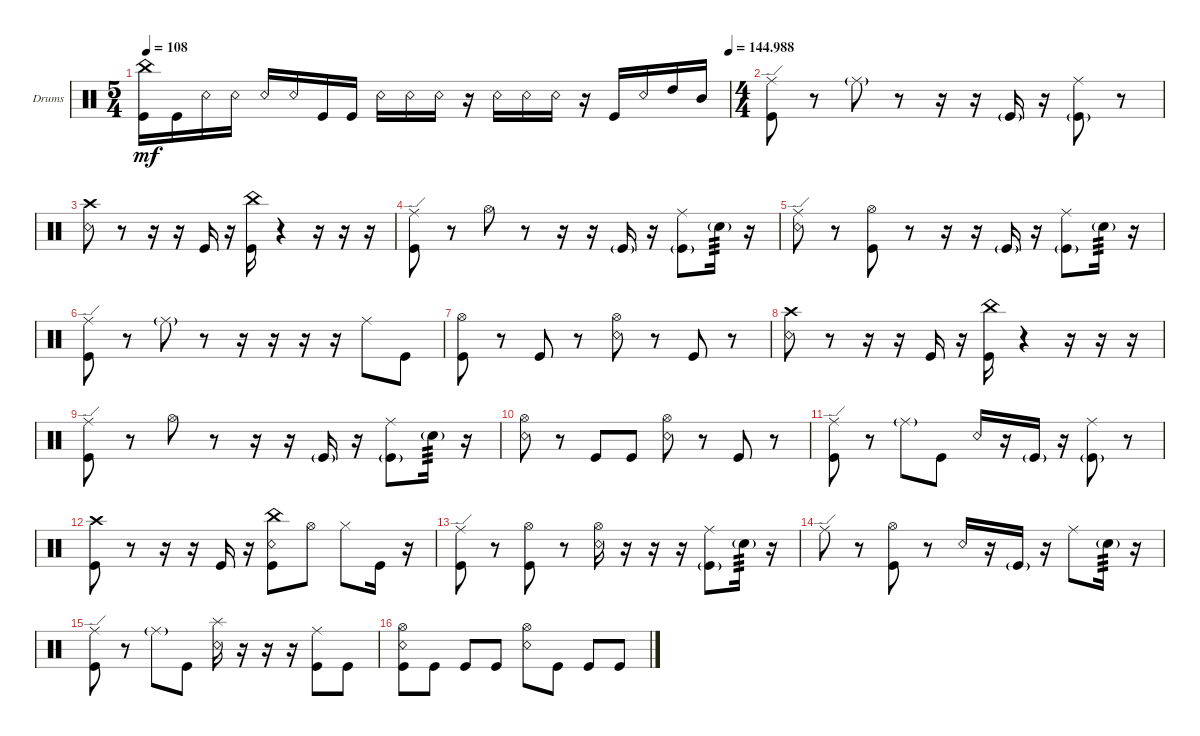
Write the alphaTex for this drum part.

\defaultSystemsLayout 4
\bracketExtendMode groupsimilarinstruments
\firstSystemTrackNameOrientation horizontal
\otherSystemsTrackNameOrientation horizontal
\track ("Drumkit" "Drums") {instrument percussion}
\staff {score}
\articulation defaults
\ts (5 4)
\tempo 108
\tempo (144.988 1)
\clef neutral
\ks c
("Kick (hit)" "China (hit)").16{dy mf} "Kick (hit)".16 "Snare (rim shot)".16 "Snare (rim shot)".16 "Snare (rim shot)".16 "Snare (rim shot)".16 "Kick (hit)".16 "Kick (hit)".16 "Snare (rim shot)".16 "Snare (rim shot)".16 "Snare (rim shot)".16 r.16 "Snare (rim shot)".16 "Snare (rim shot)".16 "Snare (rim shot)".16 r.16 "Kick (hit)".16 "Snare (rim shot)".16 "High Tom (hit)".16 "Mid Tom (hit)".16 |
\ts (4 4)
("Kick (hit)" "Ride (edge)").8 r.8 "Ride (middle)"{g}.8 r.8 r.16 r.16 "Kick (hit)"{g}.16 r.16 ("Ride (middle)" "Kick (hit)"{g}).8 r.8 |
("Snare (rim shot)" "Crash high (hit)").8 r.8 r.16 r.16 "Kick (hit)".16 r.16 ("Kick (hit)" "China (hit)").16 r.4 r.16 r.16 r.16 |
("Kick (hit)" "Ride (edge)").8 r.8 "Hi-Hat (open)".8 r.8 r.16 r.16 "Kick (hit)"{g}.16 r.16 ("Ride (middle)" "Kick (hit)"{g}).8 "Snare (hit) 2"{g}.16{tp 3} r.16 |
("Ride (edge)" "Snare (rim shot)").8 r.8 ("Hi-Hat (open)" "Kick (hit)").8 r.8 r.16 r.16 "Kick (hit)"{g}.16 r.16 ("Ride (middle)" "Kick (hit)"{g}).8 "Snare (hit) 2"{g}.16{tp 3} r.16 |
("Kick (hit)" "Ride (edge)").8 r.8 "Ride (middle)"{g}.8 r.8 r.16 r.16 r.16 r.16 "Ride (middle)".8 "Kick (hit)".8 |
("Kick (hit)" "Hi-Hat (open)").8 r.8 "Kick (hit)".8 r.8 ("Snare (rim shot)" "Hi-Hat (open)").8 r.8 "Kick (hit)".8 r.8 |
("Snare (rim shot)" "Crash high (hit)").8 r.8 r.16 r.16 "Kick (hit)".16 r.16 ("Kick (hit)" "China (hit)").16 r.4 r.16 r.16 r.16 |
("Kick (hit)" "Ride (edge)").8 r.8 "Hi-Hat (open)".8 r.8 r.16 r.16 "Kick (hit)"{g}.16 r.16 ("Ride (middle)" "Kick (hit)"{g}).8 "Snare (hit) 2"{g}.16{tp 3} r.16 |
("Snare (rim shot)" "Hi-Hat (open)").8 r.8 "Kick (hit)".8 "Kick (hit)".8 ("Snare (rim shot)" "Hi-Hat (open)").8 r.8 "Kick (hit)".8 r.8 |
("Kick (hit)" "Ride (edge)").8 r.8 "Ride (middle)"{g}.8 "Kick (hit)".8 "Snare (rim shot)".16 r.16 "Kick (hit)"{g}.16 r.16 ("Ride (middle)" "Kick (hit)"{g}).8 r.8 |
("Crash high (hit)" "Kick (hit)").8 r.8 r.16 r.16 "Kick (hit)".16 r.16 ("Kick (hit)" "China (hit)" "Snare (rim shot)").8 "Hi-Hat (open)".8 "Hi-Hat (closed)".8 "Kick (hit)".16 r.16 |
("Kick (hit)" "Ride (edge)").8 r.8 ("Hi-Hat (open)" "Kick (hit)").8 r.8 ("Snare (rim shot)" "Hi-Hat (open)").16 r.16 r.16 r.16 ("Ride (middle)" "Kick (hit)"{g}).8 "Snare (hit) 2"{g}.16{tp 3} r.16 |
"Ride (edge)".8 r.8 ("Hi-Hat (open)" "Kick (hit)").8 r.8 "Snare (rim shot)".16 r.16 "Kick (hit)"{g}.16 r.16 "Ride (middle)".8 "Snare (hit) 2"{g}.16{tp 3} r.16 |
("Kick (hit)" "Ride (edge)").8 r.8 "Ride (middle)"{g}.8 "Kick (hit)".8 ("Snare (rim shot)" "Splash (hit)").16 r.16 r.16 r.16 ("Ride (middle)" "Kick (hit)").8 "Kick (hit)".8 |
("Kick (hit)" "Hi-Hat (open)" "Snare (rim shot)").8 "Kick (hit)".8 "Kick (hit)".8 "Kick (hit)".8 ("Snare (rim shot)" "Hi-Hat (open)").8 "Kick (hit)".8 "Kick (hit)".8 "Kick (hit)".8
